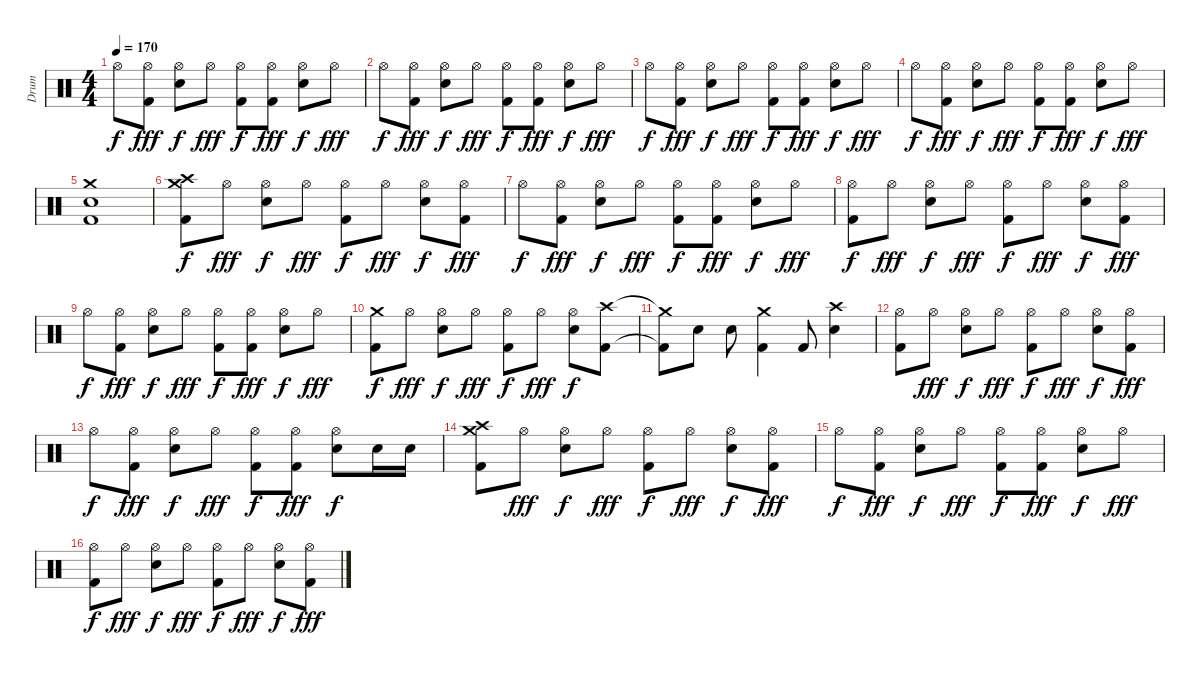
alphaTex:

\track ("Drum" "Drum") {instrument percussion}
\staff {score}
\articulation defaults
\ts (4 4)
\tempo 170
\clef neutral
\ks c "Hi-Hat (open)".8{dy f}
("Hi-Hat (open)" "Kick (hit) 2").8{dy fff} ("Hi-Hat (open)" "Electric Snare (hit)").8{dy f} "Hi-Hat (open)".8{dy fff} ("Hi-Hat (open)" "Kick (hit) 2").8{dy f} ("Hi-Hat (open)" "Kick (hit) 2").8{dy fff} ("Hi-Hat (open)" "Electric Snare (hit)").8{dy f} "Hi-Hat (open)".8{dy fff} |
"Hi-Hat (open)".8{dy f} ("Hi-Hat (open)" "Kick (hit) 2").8{dy fff} ("Hi-Hat (open)" "Electric Snare (hit)").8{dy f} "Hi-Hat (open)".8{dy fff} ("Hi-Hat (open)" "Kick (hit) 2").8{dy f} ("Hi-Hat (open)" "Kick (hit) 2").8{dy fff} ("Hi-Hat (open)" "Electric Snare (hit)").8{dy f} "Hi-Hat (open)".8{dy fff} |
"Hi-Hat (open)".8{dy f} ("Hi-Hat (open)" "Kick (hit) 2").8{dy fff} ("Hi-Hat (open)" "Electric Snare (hit)").8{dy f} "Hi-Hat (open)".8{dy fff} ("Hi-Hat (open)" "Kick (hit) 2").8{dy f} ("Hi-Hat (open)" "Kick (hit) 2").8{dy fff} ("Hi-Hat (open)" "Electric Snare (hit)").8{dy f} "Hi-Hat (open)".8{dy fff} |
"Hi-Hat (open)".8{dy f} ("Hi-Hat (open)" "Kick (hit) 2").8{dy fff} ("Hi-Hat (open)" "Electric Snare (hit)").8{dy f} "Hi-Hat (open)".8{dy fff} ("Hi-Hat (open)" "Kick (hit) 2").8{dy f} ("Hi-Hat (open)" "Kick (hit) 2").8{dy fff} ("Hi-Hat (open)" "Electric Snare (hit)").8{dy f} "Hi-Hat (open)".8{dy fff} |
("Electric Snare (hit)" "Crash medium (hit)" "Kick (hit) 2").1 |
("Kick (hit) 2" "Crash medium (hit)" "Crash high (hit)").8{dy f} "Hi-Hat (open)".8{dy fff} ("Electric Snare (hit)" "Hi-Hat (open)").8{dy f} "Hi-Hat (open)".8{dy fff} ("Kick (hit) 2" "Hi-Hat (open)").8{dy f} "Hi-Hat (open)".8{dy fff} ("Electric Snare (hit)" "Hi-Hat (open)").8{dy f} ("Kick (hit) 2" "Hi-Hat (open)").8{dy fff} |
"Hi-Hat (open)".8{dy f} ("Kick (hit) 2" "Hi-Hat (open)").8{dy fff} ("Electric Snare (hit)" "Hi-Hat (open)").8{dy f} "Hi-Hat (open)".8{dy fff} ("Kick (hit) 2" "Hi-Hat (open)").8{dy f} ("Kick (hit) 2" "Hi-Hat (open)").8{dy fff} ("Electric Snare (hit)" "Hi-Hat (open)").8{dy f} "Hi-Hat (open)".8{dy fff} |
("Kick (hit) 2" "Hi-Hat (open)").8{dy f} "Hi-Hat (open)".8{dy fff} ("Electric Snare (hit)" "Hi-Hat (open)").8{dy f} "Hi-Hat (open)".8{dy fff} ("Kick (hit) 2" "Hi-Hat (open)").8{dy f} "Hi-Hat (open)".8{dy fff} ("Electric Snare (hit)" "Hi-Hat (open)").8{dy f} ("Kick (hit) 2" "Hi-Hat (open)").8{dy fff} |
"Hi-Hat (open)".8{dy f} ("Kick (hit) 2" "Hi-Hat (open)").8{dy fff} ("Electric Snare (hit)" "Hi-Hat (open)").8{dy f} "Hi-Hat (open)".8{dy fff} ("Kick (hit) 2" "Hi-Hat (open)").8{dy f} ("Kick (hit) 2" "Hi-Hat (open)").8{dy fff} ("Electric Snare (hit)" "Hi-Hat (open)").8{dy f} "Hi-Hat (open)".8{dy fff} |
("Kick (hit) 2" "Crash medium (hit)").8{dy f} "Hi-Hat (open)".8{dy fff} ("Electric Snare (hit)" "Hi-Hat (open)").8{dy f} "Hi-Hat (open)".8{dy fff} ("Kick (hit) 2" "Hi-Hat (open)").8{dy f} "Hi-Hat (open)".8{dy fff} ("Electric Snare (hit)" "Hi-Hat (open)").8{dy f} ("Kick (hit) 2" "Crash high (hit)").8 |
("Kick (hit) 2"{t} "Crash medium (hit)"{t}).8 "Electric Snare (hit)".8 "Electric Snare (hit)".8 ("Kick (hit) 2" "Crash medium (hit)").4 "Kick (hit) 2".8 ("Electric Snare (hit)" "Crash high (hit)").4 |
("Kick (hit) 2" "Hi-Hat (open)").8 "Hi-Hat (open)".8{dy fff} ("Electric Snare (hit)" "Hi-Hat (open)").8{dy f} "Hi-Hat (open)".8{dy fff} ("Kick (hit) 2" "Hi-Hat (open)").8{dy f} "Hi-Hat (open)".8{dy fff} ("Electric Snare (hit)" "Hi-Hat (open)").8{dy f} ("Kick (hit) 2" "Hi-Hat (open)").8{dy fff} |
"Hi-Hat (open)".8{dy f} ("Kick (hit) 2" "Hi-Hat (open)").8{dy fff} ("Electric Snare (hit)" "Hi-Hat (open)").8{dy f} "Hi-Hat (open)".8{dy fff} ("Kick (hit) 2" "Hi-Hat (open)").8{dy f} ("Kick (hit) 2" "Hi-Hat (open)").8{dy fff} ("Electric Snare (hit)" "Hi-Hat (open)").8{dy f} "Electric Snare (hit)".16 "Electric Snare (hit)".16 |
("Kick (hit) 2" "Crash medium (hit)" "Crash high (hit)").8 "Hi-Hat (open)".8{dy fff} ("Electric Snare (hit)" "Hi-Hat (open)").8{dy f} "Hi-Hat (open)".8{dy fff} ("Kick (hit) 2" "Hi-Hat (open)").8{dy f} "Hi-Hat (open)".8{dy fff} ("Electric Snare (hit)" "Hi-Hat (open)").8{dy f} ("Kick (hit) 2" "Hi-Hat (open)").8{dy fff} |
"Hi-Hat (open)".8{dy f} ("Kick (hit) 2" "Hi-Hat (open)").8{dy fff} ("Electric Snare (hit)" "Hi-Hat (open)").8{dy f} "Hi-Hat (open)".8{dy fff} ("Kick (hit) 2" "Hi-Hat (open)").8{dy f} ("Kick (hit) 2" "Hi-Hat (open)").8{dy fff} ("Electric Snare (hit)" "Hi-Hat (open)").8{dy f} "Hi-Hat (open)".8{dy fff} |
("Kick (hit) 2" "Hi-Hat (open)").8{dy f} "Hi-Hat (open)".8{dy fff} ("Electric Snare (hit)" "Hi-Hat (open)").8{dy f} "Hi-Hat (open)".8{dy fff} ("Kick (hit) 2" "Hi-Hat (open)").8{dy f} "Hi-Hat (open)".8{dy fff} ("Electric Snare (hit)" "Hi-Hat (open)").8{dy f} ("Kick (hit) 2" "Hi-Hat (open)").8{dy fff}
